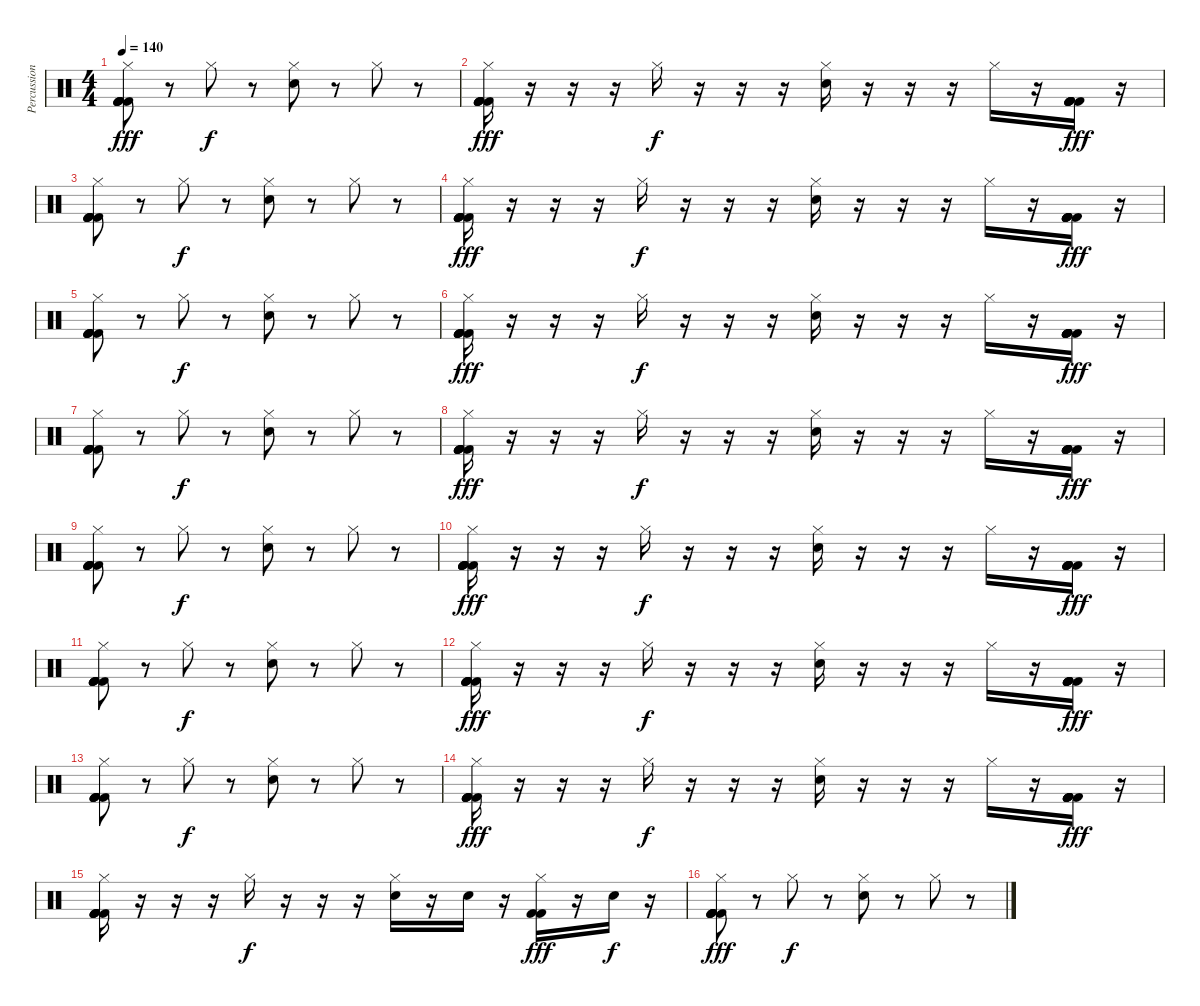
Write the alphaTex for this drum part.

\track ("Percussions" "Percussion") {instrument percussion}
\staff {score}
\articulation defaults
\ts (4 4)
\tempo 140
\clef neutral
\ks c
("Hi-Hat (closed)" "Kick (hit) 2" "Kick (hit) 2" "Kick (hit) 2" "Kick (hit) 2" "Kick (hit) 2").8{dy fff} r.8 "Hi-Hat (closed)".8{dy f} r.8 ("Hi-Hat (closed)" "Snare (hit) 2").8 r.8 "Hi-Hat (closed)".8 r.8 |
("Hi-Hat (closed)" "Kick (hit) 2" "Kick (hit) 2" "Kick (hit) 2" "Kick (hit) 2" "Kick (hit) 2").16{dy fff} r.16 r.16 r.16 "Hi-Hat (closed)".16{dy f} r.16 r.16 r.16 ("Hi-Hat (closed)" "Snare (hit) 2").16 r.16 r.16 r.16 "Hi-Hat (closed)".16 r.16 ("Kick (hit) 2" "Kick (hit) 2" "Kick (hit) 2" "Kick (hit) 2" "Kick (hit) 2" "Kick (hit) 2").16{dy fff} r.16 |
("Hi-Hat (closed)" "Kick (hit) 2" "Kick (hit) 2" "Kick (hit) 2" "Kick (hit) 2" "Kick (hit) 2").8 r.8 "Hi-Hat (closed)".8{dy f} r.8 ("Hi-Hat (closed)" "Snare (hit) 2").8 r.8 "Hi-Hat (closed)".8 r.8 |
("Hi-Hat (closed)" "Kick (hit) 2" "Kick (hit) 2" "Kick (hit) 2" "Kick (hit) 2" "Kick (hit) 2").16{dy fff} r.16 r.16 r.16 "Hi-Hat (closed)".16{dy f} r.16 r.16 r.16 ("Hi-Hat (closed)" "Snare (hit) 2").16 r.16 r.16 r.16 "Hi-Hat (closed)".16 r.16 ("Kick (hit) 2" "Kick (hit) 2" "Kick (hit) 2" "Kick (hit) 2" "Kick (hit) 2" "Kick (hit) 2").16{dy fff} r.16 |
("Hi-Hat (closed)" "Kick (hit) 2" "Kick (hit) 2" "Kick (hit) 2" "Kick (hit) 2" "Kick (hit) 2").8 r.8 "Hi-Hat (closed)".8{dy f} r.8 ("Hi-Hat (closed)" "Snare (hit) 2").8 r.8 "Hi-Hat (closed)".8 r.8 |
("Hi-Hat (closed)" "Kick (hit) 2" "Kick (hit) 2" "Kick (hit) 2" "Kick (hit) 2" "Kick (hit) 2").16{dy fff} r.16 r.16 r.16 "Hi-Hat (closed)".16{dy f} r.16 r.16 r.16 ("Hi-Hat (closed)" "Snare (hit) 2").16 r.16 r.16 r.16 "Hi-Hat (closed)".16 r.16 ("Kick (hit) 2" "Kick (hit) 2" "Kick (hit) 2" "Kick (hit) 2" "Kick (hit) 2" "Kick (hit) 2").16{dy fff} r.16 |
("Hi-Hat (closed)" "Kick (hit) 2" "Kick (hit) 2" "Kick (hit) 2" "Kick (hit) 2" "Kick (hit) 2").8 r.8 "Hi-Hat (closed)".8{dy f} r.8 ("Hi-Hat (closed)" "Snare (hit) 2").8 r.8 "Hi-Hat (closed)".8 r.8 |
("Hi-Hat (closed)" "Kick (hit) 2" "Kick (hit) 2" "Kick (hit) 2" "Kick (hit) 2" "Kick (hit) 2").16{dy fff} r.16 r.16 r.16 "Hi-Hat (closed)".16{dy f} r.16 r.16 r.16 ("Hi-Hat (closed)" "Snare (hit) 2").16 r.16 r.16 r.16 "Hi-Hat (closed)".16 r.16 ("Kick (hit) 2" "Kick (hit) 2" "Kick (hit) 2" "Kick (hit) 2" "Kick (hit) 2" "Kick (hit) 2").16{dy fff} r.16 |
("Hi-Hat (closed)" "Kick (hit) 2" "Kick (hit) 2" "Kick (hit) 2" "Kick (hit) 2" "Kick (hit) 2").8 r.8 "Hi-Hat (closed)".8{dy f} r.8 ("Hi-Hat (closed)" "Snare (hit) 2").8 r.8 "Hi-Hat (closed)".8 r.8 |
("Hi-Hat (closed)" "Kick (hit) 2" "Kick (hit) 2" "Kick (hit) 2" "Kick (hit) 2" "Kick (hit) 2").16{dy fff} r.16 r.16 r.16 "Hi-Hat (closed)".16{dy f} r.16 r.16 r.16 ("Hi-Hat (closed)" "Snare (hit) 2").16 r.16 r.16 r.16 "Hi-Hat (closed)".16 r.16 ("Kick (hit) 2" "Kick (hit) 2" "Kick (hit) 2" "Kick (hit) 2" "Kick (hit) 2" "Kick (hit) 2").16{dy fff} r.16 |
("Hi-Hat (closed)" "Kick (hit) 2" "Kick (hit) 2" "Kick (hit) 2" "Kick (hit) 2" "Kick (hit) 2").8 r.8 "Hi-Hat (closed)".8{dy f} r.8 ("Hi-Hat (closed)" "Snare (hit) 2").8 r.8 "Hi-Hat (closed)".8 r.8 |
("Hi-Hat (closed)" "Kick (hit) 2" "Kick (hit) 2" "Kick (hit) 2" "Kick (hit) 2" "Kick (hit) 2").16{dy fff} r.16 r.16 r.16 "Hi-Hat (closed)".16{dy f} r.16 r.16 r.16 ("Hi-Hat (closed)" "Snare (hit) 2").16 r.16 r.16 r.16 "Hi-Hat (closed)".16 r.16 ("Kick (hit) 2" "Kick (hit) 2" "Kick (hit) 2" "Kick (hit) 2" "Kick (hit) 2" "Kick (hit) 2").16{dy fff} r.16 |
("Hi-Hat (closed)" "Kick (hit) 2" "Kick (hit) 2" "Kick (hit) 2" "Kick (hit) 2" "Kick (hit) 2").8 r.8 "Hi-Hat (closed)".8{dy f} r.8 ("Hi-Hat (closed)" "Snare (hit) 2").8 r.8 "Hi-Hat (closed)".8 r.8 |
("Hi-Hat (closed)" "Kick (hit) 2" "Kick (hit) 2" "Kick (hit) 2" "Kick (hit) 2" "Kick (hit) 2").16{dy fff} r.16 r.16 r.16 "Hi-Hat (closed)".16{dy f} r.16 r.16 r.16 ("Hi-Hat (closed)" "Snare (hit) 2").16 r.16 r.16 r.16 "Hi-Hat (closed)".16 r.16 ("Kick (hit) 2" "Kick (hit) 2" "Kick (hit) 2" "Kick (hit) 2" "Kick (hit) 2" "Kick (hit) 2").16{dy fff} r.16 |
("Hi-Hat (closed)" "Kick (hit) 2" "Kick (hit) 2" "Kick (hit) 2" "Kick (hit) 2" "Kick (hit) 2").16 r.16 r.16 r.16 "Hi-Hat (closed)".16{dy f} r.16 r.16 r.16 ("Hi-Hat (closed)" "Snare (hit) 2").16 r.16 "Snare (hit) 2".16 r.16 ("Hi-Hat (closed)" "Kick (hit) 2" "Kick (hit) 2").16{dy fff} r.16 "Snare (hit) 2".16{dy f} r.16 |
("Hi-Hat (closed)" "Kick (hit) 2" "Kick (hit) 2" "Kick (hit) 2" "Kick (hit) 2" "Kick (hit) 2").8{dy fff} r.8 "Hi-Hat (closed)".8{dy f} r.8 ("Hi-Hat (closed)" "Snare (hit) 2").8 r.8 "Hi-Hat (closed)".8 r.8
